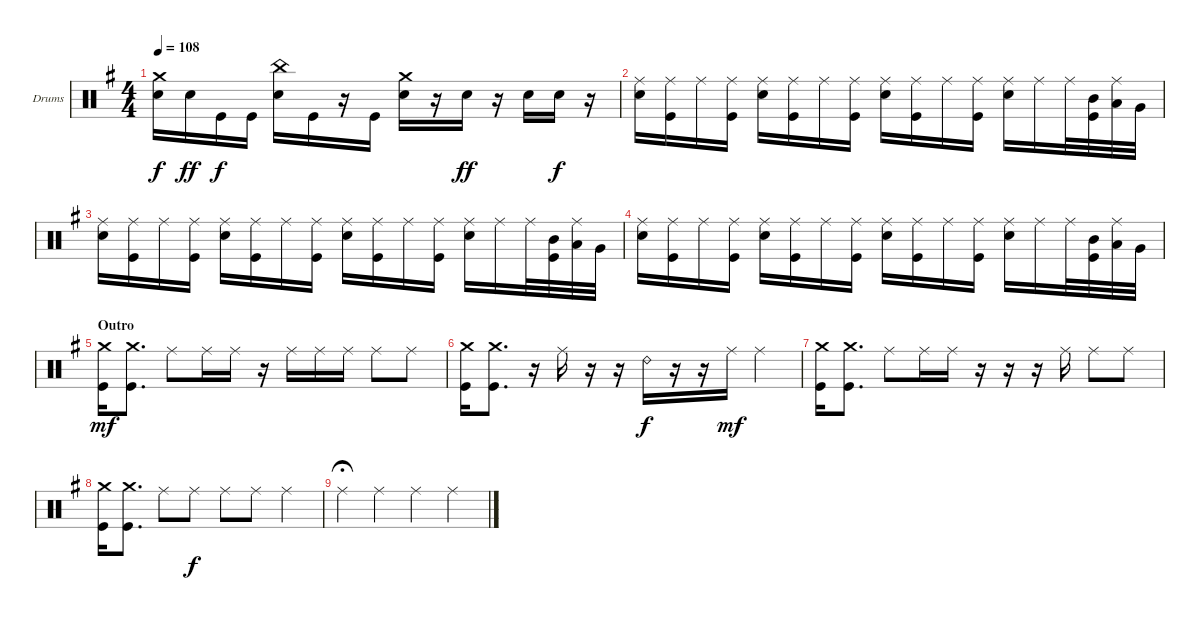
\defaultSystemsLayout 4
\bracketExtendMode groupsimilarinstruments
\firstSystemTrackNameOrientation horizontal
\otherSystemsTrackNameOrientation horizontal
\track ("Drumkit" "Drums") {instrument percussion}
\staff {score}
\articulation defaults
\ts (4 4)
\tempo 108
\clef neutral
\scale
1.04288
\ks g
("Crash medium (hit)" "Snare (hit) 2").16{dy f} "Snare (hit) 2".16{dy ff} "Kick (hit)".16{dy f} "Kick (hit)".16 ("China (hit)" "Snare (hit) 2").16 "Kick (hit)".16 r.16 "Kick (hit)".16 ("Crash medium (hit)" "Snare (hit) 2").16 r.16 "Snare (hit) 2".16{dy ff} r.16 "Snare (hit) 2".16 "Snare (hit) 2".16{dy f} r.16 |
\scale
0.957125 ("Ride (middle)" "Snare (hit) 2").16 ("Ride (middle)" "Kick (hit)").16 "Ride (middle)".16 ("Ride (middle)" "Kick (hit)").16 ("Ride (middle)" "Snare (hit) 2").16 ("Ride (middle)" "Kick (hit)").16 "Ride (middle)".16 ("Ride (middle)" "Kick (hit)").16 ("Ride (middle)" "Snare (hit) 2").16 ("Ride (middle)" "Kick (hit)").16 "Ride (middle)".16 ("Ride (middle)" "Kick (hit)").16 ("Ride (middle)" "Snare (hit) 2").16 "Ride (middle)".16 "Ride (middle)".32 ("Mid Tom (hit)" "Kick (hit)").32 ("Low Tom (hit)" "Ride (middle)").32 "Very Low Tom (hit)".32 |
\scale
1.04288 ("Ride (middle)" "Snare (hit) 2").16 ("Ride (middle)" "Kick (hit)").16 "Ride (middle)".16 ("Ride (middle)" "Kick (hit)").16 ("Ride (middle)" "Snare (hit) 2").16 ("Ride (middle)" "Kick (hit)").16 "Ride (middle)".16 ("Ride (middle)" "Kick (hit)").16 ("Ride (middle)" "Snare (hit) 2").16 ("Ride (middle)" "Kick (hit)").16 "Ride (middle)".16 ("Ride (middle)" "Kick (hit)").16 ("Ride (middle)" "Snare (hit) 2").16 "Ride (middle)".16 "Ride (middle)".32 ("Mid Tom (hit)" "Kick (hit)").32 ("Low Tom (hit)" "Ride (middle)").32 "Very Low Tom (hit)".32 |
\scale
0.957125 ("Ride (middle)" "Snare (hit) 2").16 ("Ride (middle)" "Kick (hit)").16 "Ride (middle)".16 ("Ride (middle)" "Kick (hit)").16 ("Ride (middle)" "Snare (hit) 2").16 ("Ride (middle)" "Kick (hit)").16 "Ride (middle)".16 ("Ride (middle)" "Kick (hit)").16 ("Ride (middle)" "Snare (hit) 2").16 ("Ride (middle)" "Kick (hit)").16 "Ride (middle)".16 ("Ride (middle)" "Kick (hit)").16 ("Ride (middle)" "Snare (hit) 2").16 "Ride (middle)".16 "Ride (middle)".32 ("Mid Tom (hit)" "Kick (hit)").32 ("Low Tom (hit)" "Ride (middle)").32 "Very Low Tom (hit)".32 |
\section ("" "Outro")
\scale
1.04288 ("Crash medium (hit)" "Kick (hit)").16{dy mf} ("Crash medium (hit)" "Kick (hit)").8{d} "Ride (middle)".8 "Ride (middle)".16 "Ride (middle)".16 r.16 "Ride (middle)".16 "Ride (middle)".16 "Ride (middle)".16 "Ride (middle)".8 "Ride (middle)".8 |
\scale
0.957125 ("Crash medium (hit)" "Kick (hit)").16 ("Crash medium (hit)" "Kick (hit)").8{d} r.16 "Ride (middle)".16 r.16 r.16 "Ride (bell) 2".16{dy f} r.16 r.16 "Ride (middle)".16{dy mf} "Ride (middle)".4 |
\scale
1.04288 ("Crash medium (hit)" "Kick (hit)").16 ("Crash medium (hit)" "Kick (hit)").8{d} "Ride (middle)".8 "Ride (middle)".16 "Ride (middle)".16 r.16 r.16 r.16 "Ride (middle)".16 "Ride (middle)".8 "Ride (middle)".8 |
\scale
0.957125 ("Crash medium (hit)" "Kick (hit)").16 ("Crash medium (hit)" "Kick (hit)").8{d} "Ride (middle)".8 "Ride (middle)".8{dy f} "Ride (middle)".8 "Ride (middle)".8 "Ride (middle)".4 |
\scale
1.04288 "Ride (middle)".4{fermata (medium 0.5)} "Ride (middle)".4 "Ride (middle)".4 "Ride (middle)".4 |
\scale
0.957125
